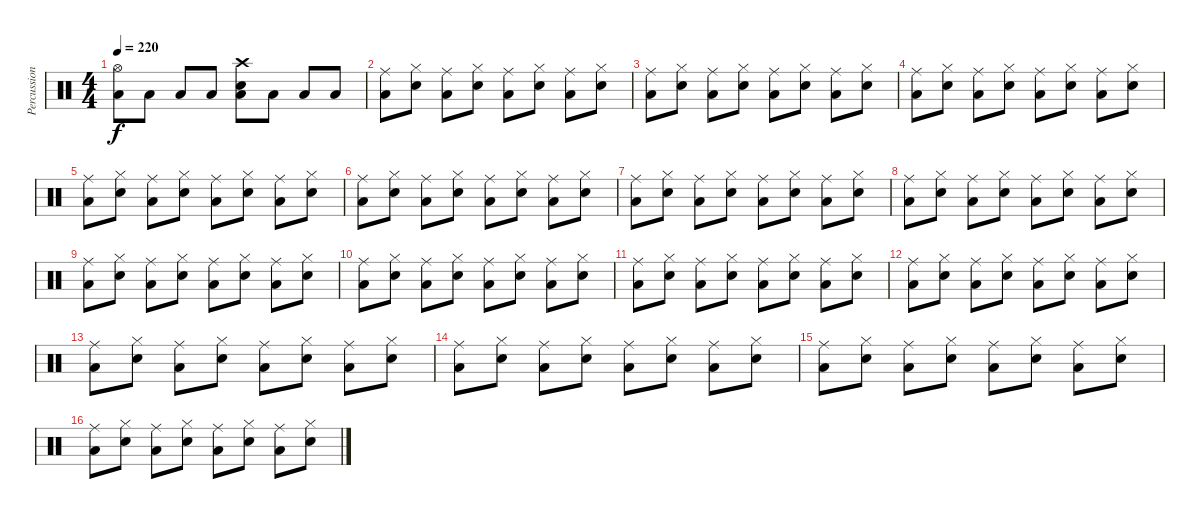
\track ("Percussion" "Percussion") {instrument percussion}
\staff {score}
\articulation defaults
\ts (4 4)
\tempo 220
\clef neutral
\ks c
("Hi-Hat (open)" "Low Floor Tom (hit)").8{dy f} "Low Floor Tom (hit)".8 "Low Floor Tom (hit)".8 "Low Floor Tom (hit)".8 ("Crash high (hit)" "Snare (hit) 2" "Low Floor Tom (hit)").8 "Low Floor Tom (hit)".8 "Low Floor Tom (hit)".8 "Low Floor Tom (hit)".8 |
("Low Floor Tom (hit)" "Ride (middle)").8 ("Electric Snare (hit)" "Hi-Hat (closed)").8 ("Low Floor Tom (hit)" "Ride (middle)").8 ("Electric Snare (hit)" "Hi-Hat (closed)").8 ("Low Floor Tom (hit)" "Ride (middle)").8 ("Electric Snare (hit)" "Hi-Hat (closed)").8 ("Low Floor Tom (hit)" "Ride (middle)").8 ("Electric Snare (hit)" "Hi-Hat (closed)").8 |
("Low Floor Tom (hit)" "Ride (middle)").8 ("Electric Snare (hit)" "Hi-Hat (closed)").8 ("Low Floor Tom (hit)" "Ride (middle)").8 ("Electric Snare (hit)" "Hi-Hat (closed)").8 ("Low Floor Tom (hit)" "Ride (middle)").8 ("Electric Snare (hit)" "Hi-Hat (closed)").8 ("Low Floor Tom (hit)" "Ride (middle)").8 ("Electric Snare (hit)" "Hi-Hat (closed)").8 |
("Low Floor Tom (hit)" "Ride (middle)").8 ("Electric Snare (hit)" "Hi-Hat (closed)").8 ("Low Floor Tom (hit)" "Ride (middle)").8 ("Electric Snare (hit)" "Hi-Hat (closed)").8 ("Low Floor Tom (hit)" "Ride (middle)").8 ("Electric Snare (hit)" "Hi-Hat (closed)").8 ("Low Floor Tom (hit)" "Ride (middle)").8 ("Electric Snare (hit)" "Hi-Hat (closed)").8 |
("Low Floor Tom (hit)" "Ride (middle)").8 ("Electric Snare (hit)" "Hi-Hat (closed)").8 ("Low Floor Tom (hit)" "Ride (middle)").8 ("Electric Snare (hit)" "Hi-Hat (closed)").8 ("Low Floor Tom (hit)" "Ride (middle)").8 ("Electric Snare (hit)" "Hi-Hat (closed)").8 ("Low Floor Tom (hit)" "Ride (middle)").8 ("Electric Snare (hit)" "Hi-Hat (closed)").8 |
("Low Floor Tom (hit)" "Ride (middle)").8 ("Electric Snare (hit)" "Hi-Hat (closed)").8 ("Low Floor Tom (hit)" "Ride (middle)").8 ("Electric Snare (hit)" "Hi-Hat (closed)").8 ("Low Floor Tom (hit)" "Ride (middle)").8 ("Electric Snare (hit)" "Hi-Hat (closed)").8 ("Low Floor Tom (hit)" "Ride (middle)").8 ("Electric Snare (hit)" "Hi-Hat (closed)").8 |
("Low Floor Tom (hit)" "Ride (middle)").8 ("Electric Snare (hit)" "Hi-Hat (closed)").8 ("Low Floor Tom (hit)" "Ride (middle)").8 ("Electric Snare (hit)" "Hi-Hat (closed)").8 ("Low Floor Tom (hit)" "Ride (middle)").8 ("Electric Snare (hit)" "Hi-Hat (closed)").8 ("Low Floor Tom (hit)" "Ride (middle)").8 ("Electric Snare (hit)" "Hi-Hat (closed)").8 |
("Low Floor Tom (hit)" "Ride (middle)").8 ("Electric Snare (hit)" "Hi-Hat (closed)").8 ("Low Floor Tom (hit)" "Ride (middle)").8 ("Electric Snare (hit)" "Hi-Hat (closed)").8 ("Low Floor Tom (hit)" "Ride (middle)").8 ("Electric Snare (hit)" "Hi-Hat (closed)").8 ("Low Floor Tom (hit)" "Ride (middle)").8 ("Electric Snare (hit)" "Hi-Hat (closed)").8 |
("Low Floor Tom (hit)" "Ride (middle)").8 ("Electric Snare (hit)" "Hi-Hat (closed)").8 ("Low Floor Tom (hit)" "Ride (middle)").8 ("Electric Snare (hit)" "Hi-Hat (closed)").8 ("Low Floor Tom (hit)" "Ride (middle)").8 ("Electric Snare (hit)" "Hi-Hat (closed)").8 ("Low Floor Tom (hit)" "Ride (middle)").8 ("Electric Snare (hit)" "Hi-Hat (closed)").8 |
("Low Floor Tom (hit)" "Ride (middle)").8 ("Electric Snare (hit)" "Hi-Hat (closed)").8 ("Low Floor Tom (hit)" "Ride (middle)").8 ("Electric Snare (hit)" "Hi-Hat (closed)").8 ("Low Floor Tom (hit)" "Ride (middle)").8 ("Electric Snare (hit)" "Hi-Hat (closed)").8 ("Low Floor Tom (hit)" "Ride (middle)").8 ("Electric Snare (hit)" "Hi-Hat (closed)").8 |
("Low Floor Tom (hit)" "Ride (middle)").8 ("Electric Snare (hit)" "Hi-Hat (closed)").8 ("Low Floor Tom (hit)" "Ride (middle)").8 ("Electric Snare (hit)" "Hi-Hat (closed)").8 ("Low Floor Tom (hit)" "Ride (middle)").8 ("Electric Snare (hit)" "Hi-Hat (closed)").8 ("Low Floor Tom (hit)" "Ride (middle)").8 ("Electric Snare (hit)" "Hi-Hat (closed)").8 |
("Low Floor Tom (hit)" "Ride (middle)").8 ("Electric Snare (hit)" "Hi-Hat (closed)").8 ("Low Floor Tom (hit)" "Ride (middle)").8 ("Electric Snare (hit)" "Hi-Hat (closed)").8 ("Low Floor Tom (hit)" "Ride (middle)").8 ("Electric Snare (hit)" "Hi-Hat (closed)").8 ("Low Floor Tom (hit)" "Ride (middle)").8 ("Electric Snare (hit)" "Hi-Hat (closed)").8 |
("Low Floor Tom (hit)" "Ride (middle)").8 ("Electric Snare (hit)" "Hi-Hat (closed)").8 ("Low Floor Tom (hit)" "Ride (middle)").8 ("Electric Snare (hit)" "Hi-Hat (closed)").8 ("Low Floor Tom (hit)" "Ride (middle)").8 ("Electric Snare (hit)" "Hi-Hat (closed)").8 ("Low Floor Tom (hit)" "Ride (middle)").8 ("Electric Snare (hit)" "Hi-Hat (closed)").8 |
("Low Floor Tom (hit)" "Ride (middle)").8 ("Electric Snare (hit)" "Hi-Hat (closed)").8 ("Low Floor Tom (hit)" "Ride (middle)").8 ("Electric Snare (hit)" "Hi-Hat (closed)").8 ("Low Floor Tom (hit)" "Ride (middle)").8 ("Electric Snare (hit)" "Hi-Hat (closed)").8 ("Low Floor Tom (hit)" "Ride (middle)").8 ("Electric Snare (hit)" "Hi-Hat (closed)").8 |
("Low Floor Tom (hit)" "Ride (middle)").8 ("Electric Snare (hit)" "Hi-Hat (closed)").8 ("Low Floor Tom (hit)" "Ride (middle)").8 ("Electric Snare (hit)" "Hi-Hat (closed)").8 ("Low Floor Tom (hit)" "Ride (middle)").8 ("Electric Snare (hit)" "Hi-Hat (closed)").8 ("Low Floor Tom (hit)" "Ride (middle)").8 ("Electric Snare (hit)" "Hi-Hat (closed)").8 |
("Low Floor Tom (hit)" "Ride (middle)").8 ("Electric Snare (hit)" "Hi-Hat (closed)").8 ("Low Floor Tom (hit)" "Ride (middle)").8 ("Electric Snare (hit)" "Hi-Hat (closed)").8 ("Low Floor Tom (hit)" "Ride (middle)").8 ("Electric Snare (hit)" "Hi-Hat (closed)").8 ("Low Floor Tom (hit)" "Ride (middle)").8 ("Electric Snare (hit)" "Hi-Hat (closed)").8
